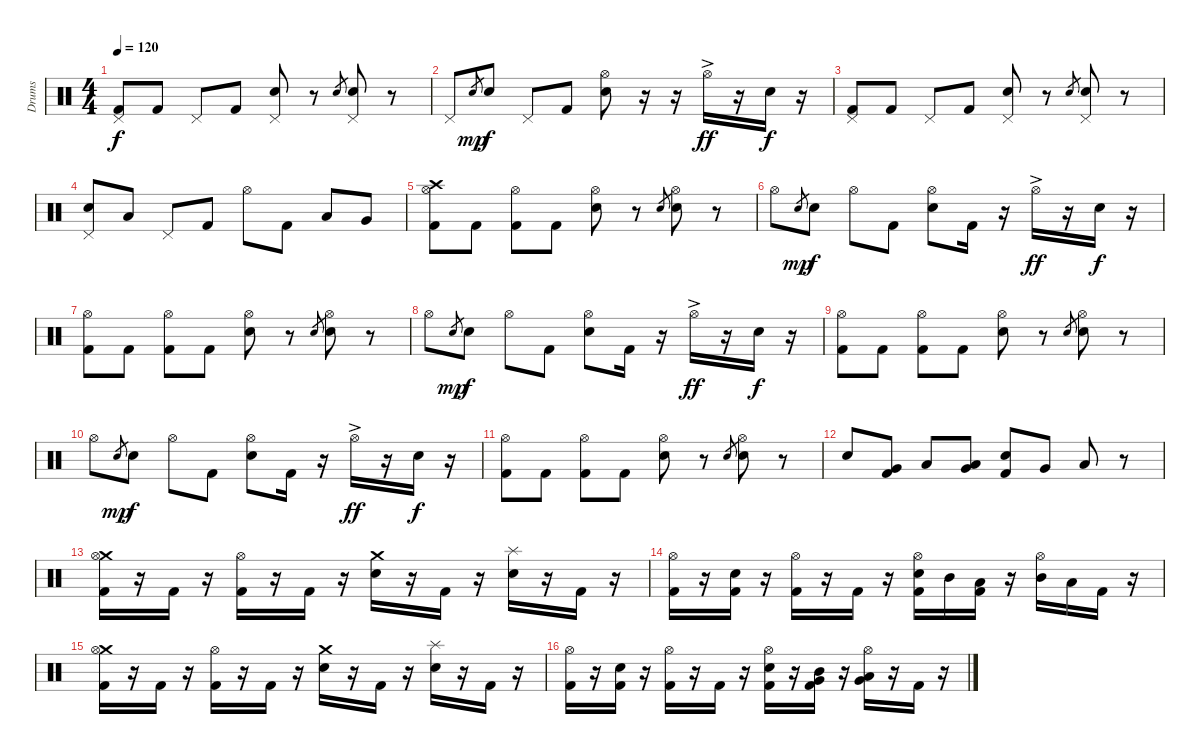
\track ("Drums" "Drums") {instrument percussion}
\staff {score}
\articulation defaults
\ts (4 4)
\tempo 120
\clef neutral
\ks c
("Kick (hit) 2" "Pedal Hi-Hat (hit)").8{dy f} "Kick (hit) 2".8 "Pedal Hi-Hat (hit)".8 "Kick (hit) 2".8 ("Snare (hit) 2" "Pedal Hi-Hat (hit)").8 r.8 "Snare (hit) 2".8{gr} ("Snare (hit) 2" "Pedal Hi-Hat (hit)").8 r.8 |
"Pedal Hi-Hat (hit)".8 "Electric Snare (hit)".8{gr dy mp} "Snare (hit) 2".8{dy f} "Pedal Hi-Hat (hit)".8 "Kick (hit) 2".8 ("Snare (hit) 2" "Hi-Hat (open)").8 r.16 r.16 "Hi-Hat (open)"{ac}.16{dy ff} r.16 "Snare (hit) 2".16{dy f} r.16 |
("Kick (hit) 2" "Pedal Hi-Hat (hit)").8 "Kick (hit) 2".8 "Pedal Hi-Hat (hit)".8 "Kick (hit) 2".8 ("Snare (hit) 2" "Pedal Hi-Hat (hit)").8 r.8 "Snare (hit) 2".8{gr} ("Snare (hit) 2" "Pedal Hi-Hat (hit)").8 r.8 |
("Pedal Hi-Hat (hit)" "Snare (hit) 2").8 "Low Tom (hit)".8 "Pedal Hi-Hat (hit)".8 "Kick (hit) 2".8 "Hi-Hat (open)".8 "Kick (hit) 2".8 "Low Floor Tom (hit)".8 "Very Low Tom (hit)".8 |
("Crash high (hit)" "Kick (hit) 2" "Hi-Hat (open)").8 "Kick (hit) 2".8 ("Kick (hit) 2" "Hi-Hat (open)").8 "Kick (hit) 2".8 ("Snare (hit) 2" "Hi-Hat (open)").8 r.8 "Snare (hit) 2".8{gr} ("Snare (hit) 2" "Hi-Hat (open)").8 r.8 |
"Hi-Hat (open)".8 "Electric Snare (hit)".8{gr dy mp} "Snare (hit) 2".8{dy f} "Hi-Hat (open)".8 "Kick (hit) 2".8 ("Snare (hit) 2" "Hi-Hat (open)").8 "Kick (hit) 2".16 r.16 "Hi-Hat (open)"{ac}.16{dy ff} r.16 "Snare (hit) 2".16{dy f} r.16 |
("Kick (hit) 2" "Hi-Hat (open)").8 "Kick (hit) 2".8 ("Kick (hit) 2" "Hi-Hat (open)").8 "Kick (hit) 2".8 ("Snare (hit) 2" "Hi-Hat (open)").8 r.8 "Snare (hit) 2".8{gr} ("Snare (hit) 2" "Hi-Hat (open)").8 r.8 |
"Hi-Hat (open)".8 "Electric Snare (hit)".8{gr dy mp} "Snare (hit) 2".8{dy f} "Hi-Hat (open)".8 "Kick (hit) 2".8 ("Snare (hit) 2" "Hi-Hat (open)").8 "Kick (hit) 2".16 r.16 "Hi-Hat (open)"{ac}.16{dy ff} r.16 "Snare (hit) 2".16{dy f} r.16 |
("Kick (hit) 2" "Hi-Hat (open)").8 "Kick (hit) 2".8 ("Kick (hit) 2" "Hi-Hat (open)").8 "Kick (hit) 2".8 ("Snare (hit) 2" "Hi-Hat (open)").8 r.8 "Snare (hit) 2".8{gr} ("Snare (hit) 2" "Hi-Hat (open)").8 r.8 |
"Hi-Hat (open)".8 "Electric Snare (hit)".8{gr dy mp} "Snare (hit) 2".8{dy f} "Hi-Hat (open)".8 "Kick (hit) 2".8 ("Snare (hit) 2" "Hi-Hat (open)").8 "Kick (hit) 2".16 r.16 "Hi-Hat (open)"{ac}.16{dy ff} r.16 "Snare (hit) 2".16{dy f} r.16 |
("Kick (hit) 2" "Hi-Hat (open)").8 "Kick (hit) 2".8 ("Kick (hit) 2" "Hi-Hat (open)").8 "Kick (hit) 2".8 ("Snare (hit) 2" "Hi-Hat (open)").8 r.8 "Snare (hit) 2".8{gr} ("Snare (hit) 2" "Hi-Hat (open)").8 r.8 |
"Snare (hit) 2".8 ("Very Low Tom (hit)" "Kick (hit) 2").8 "Low Tom (hit)".8 ("Very Low Tom (hit)" "Low Tom (hit)").8 ("Snare (hit) 2" "Kick (hit) 2").8 "Very Low Tom (hit)".8 "Low Floor Tom (hit)".8 r.8 |
("Crash medium (hit)" "Hi-Hat (open)" "Kick (hit) 2").16 r.16 "Kick (hit) 2".16 r.16 ("Hi-Hat (open)" "Kick (hit) 2").16 r.16 "Kick (hit) 2".16 r.16 ("Snare (hit) 2" "Crash medium (hit)").16 r.16 "Kick (hit) 2".16 r.16 ("Snare (hit) 2" "Splash (hit)").16 r.16 "Kick (hit) 2".16 r.16 |
("Hi-Hat (open)" "Kick (hit) 2").16 r.16 ("Snare (hit) 2" "Kick (hit) 2").16 r.16 ("Hi-Hat (open)" "Kick (hit) 2").16 r.16 "Kick (hit) 2".16 r.16 ("Hi-Hat (open)" "Snare (hit) 2" "Kick (hit) 2").16 "Mid Tom (hit)".16 ("Low Tom (hit)" "Kick (hit) 2").16 r.16 ("Hi-Hat (open)" "Mid Tom (hit)").16 "Low Tom (hit)".16 "Kick (hit) 2".16 r.16 |
("Crash medium (hit)" "Hi-Hat (open)" "Kick (hit) 2").16 r.16 "Kick (hit) 2".16 r.16 ("Hi-Hat (open)" "Kick (hit) 2").16 r.16 "Kick (hit) 2".16 r.16 ("Snare (hit) 2" "Crash medium (hit)").16 r.16 "Kick (hit) 2".16 r.16 ("Snare (hit) 2" "Splash (hit)").16 r.16 "Kick (hit) 2".16 r.16 |
("Hi-Hat (open)" "Kick (hit) 2").16 r.16 ("Snare (hit) 2" "Kick (hit) 2").16 r.16 ("Hi-Hat (open)" "Kick (hit) 2").16 r.16 "Kick (hit) 2".16 r.16 ("Hi-Hat (open)" "Snare (hit) 2" "Kick (hit) 2").16 r.16 ("Mid Tom (hit)" "Very Low Tom (hit)" "Kick (hit) 2").16 r.16 ("Hi-Hat (open)" "Very Low Tom (hit)" "Low Tom (hit)").16 r.16 "Kick (hit) 2".16 r.16
